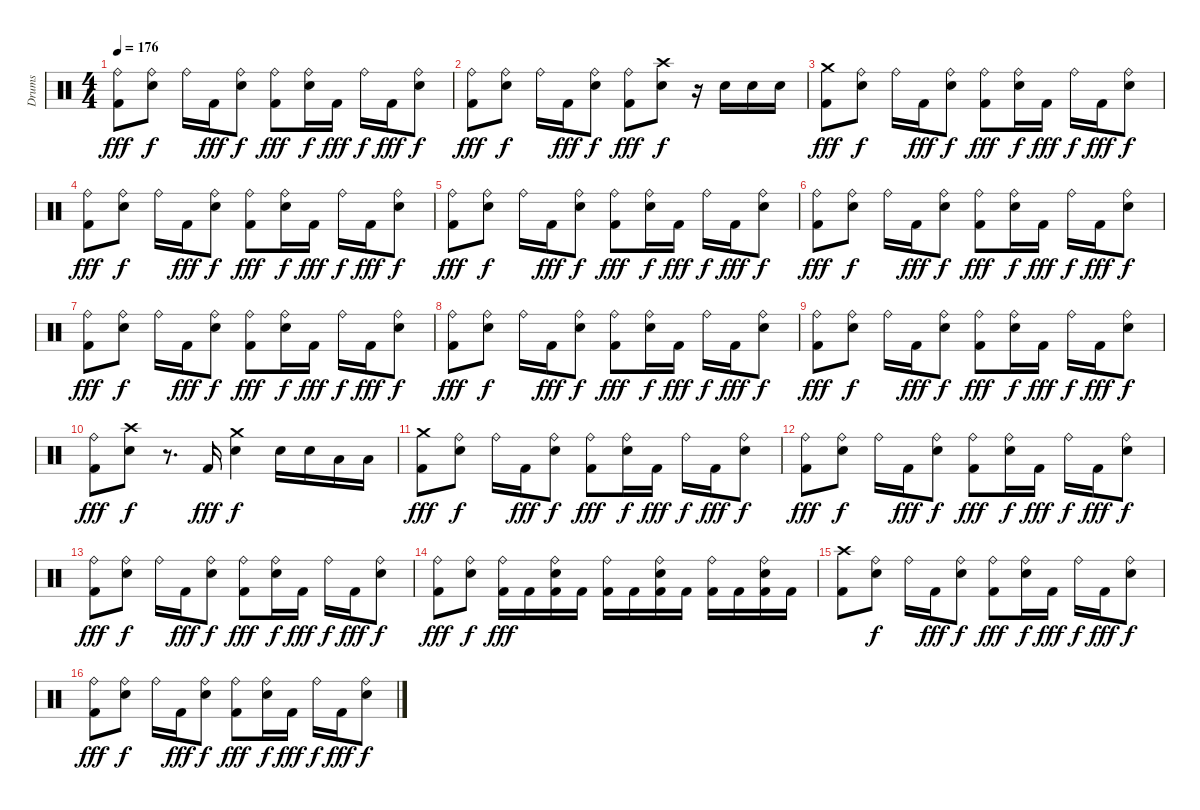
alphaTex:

\track ("Drums" "Drums") {instrument percussion}
\staff {score}
\articulation defaults
\ts (4 4)
\tempo 176
\clef neutral
\ks c
("Ride (bell)" "Kick (hit) 2").8{dy fff} ("Ride (bell)" "Snare (hit) 2").8{dy f} "Ride (bell)".16 "Kick (hit) 2".16{dy fff} ("Ride (bell)" "Snare (hit) 2").8{dy f} ("Ride (bell)" "Kick (hit) 2").8{dy fff} ("Ride (bell)" "Snare (hit) 2").16{dy f} "Kick (hit) 2".16{dy fff} "Ride (bell)".16{dy f} "Kick (hit) 2".16{dy fff} ("Ride (bell)" "Snare (hit) 2").8{dy f} |
("Ride (bell)" "Kick (hit) 2").8{dy fff} ("Ride (bell)" "Snare (hit) 2").8{dy f} "Ride (bell)".16 "Kick (hit) 2".16{dy fff} ("Ride (bell)" "Snare (hit) 2").8{dy f} ("Ride (bell)" "Kick (hit) 2").8{dy fff} ("Crash high (hit)" "Snare (hit) 2").8{dy f} r.16 "Snare (hit) 2".16 "Snare (hit) 2".16 "Snare (hit) 2".16 |
("Crash medium (hit)" "Kick (hit) 2").8{dy fff} ("Ride (bell)" "Snare (hit) 2").8{dy f} "Ride (bell)".16 "Kick (hit) 2".16{dy fff} ("Ride (bell)" "Snare (hit) 2").8{dy f} ("Ride (bell)" "Kick (hit) 2").8{dy fff} ("Ride (bell)" "Snare (hit) 2").16{dy f} "Kick (hit) 2".16{dy fff} "Ride (bell)".16{dy f} "Kick (hit) 2".16{dy fff} ("Ride (bell)" "Snare (hit) 2").8{dy f} |
("Ride (bell)" "Kick (hit) 2").8{dy fff} ("Ride (bell)" "Snare (hit) 2").8{dy f} "Ride (bell)".16 "Kick (hit) 2".16{dy fff} ("Ride (bell)" "Snare (hit) 2").8{dy f} ("Ride (bell)" "Kick (hit) 2").8{dy fff} ("Ride (bell)" "Snare (hit) 2").16{dy f} "Kick (hit) 2".16{dy fff} "Ride (bell)".16{dy f} "Kick (hit) 2".16{dy fff} ("Ride (bell)" "Snare (hit) 2").8{dy f} |
("Ride (bell)" "Kick (hit) 2").8{dy fff} ("Ride (bell)" "Snare (hit) 2").8{dy f} "Ride (bell)".16 "Kick (hit) 2".16{dy fff} ("Ride (bell)" "Snare (hit) 2").8{dy f} ("Ride (bell)" "Kick (hit) 2").8{dy fff} ("Ride (bell)" "Snare (hit) 2").16{dy f} "Kick (hit) 2".16{dy fff} "Ride (bell)".16{dy f} "Kick (hit) 2".16{dy fff} ("Ride (bell)" "Snare (hit) 2").8{dy f} |
("Ride (bell)" "Kick (hit) 2").8{dy fff} ("Ride (bell)" "Snare (hit) 2").8{dy f} "Ride (bell)".16 "Kick (hit) 2".16{dy fff} ("Ride (bell)" "Snare (hit) 2").8{dy f} ("Ride (bell)" "Kick (hit) 2").8{dy fff} ("Ride (bell)" "Snare (hit) 2").16{dy f} "Kick (hit) 2".16{dy fff} "Ride (bell)".16{dy f} "Kick (hit) 2".16{dy fff} ("Ride (bell)" "Snare (hit) 2").8{dy f} |
("Ride (bell)" "Kick (hit) 2").8{dy fff} ("Ride (bell)" "Snare (hit) 2").8{dy f} "Ride (bell)".16 "Kick (hit) 2".16{dy fff} ("Ride (bell)" "Snare (hit) 2").8{dy f} ("Ride (bell)" "Kick (hit) 2").8{dy fff} ("Ride (bell)" "Snare (hit) 2").16{dy f} "Kick (hit) 2".16{dy fff} "Ride (bell)".16{dy f} "Kick (hit) 2".16{dy fff} ("Ride (bell)" "Snare (hit) 2").8{dy f} |
("Ride (bell)" "Kick (hit) 2").8{dy fff} ("Ride (bell)" "Snare (hit) 2").8{dy f} "Ride (bell)".16 "Kick (hit) 2".16{dy fff} ("Ride (bell)" "Snare (hit) 2").8{dy f} ("Ride (bell)" "Kick (hit) 2").8{dy fff} ("Ride (bell)" "Snare (hit) 2").16{dy f} "Kick (hit) 2".16{dy fff} "Ride (bell)".16{dy f} "Kick (hit) 2".16{dy fff} ("Ride (bell)" "Snare (hit) 2").8{dy f} |
("Ride (bell)" "Kick (hit) 2").8{dy fff} ("Ride (bell)" "Snare (hit) 2").8{dy f} "Ride (bell)".16 "Kick (hit) 2".16{dy fff} ("Ride (bell)" "Snare (hit) 2").8{dy f} ("Ride (bell)" "Kick (hit) 2").8{dy fff} ("Ride (bell)" "Snare (hit) 2").16{dy f} "Kick (hit) 2".16{dy fff} "Ride (bell)".16{dy f} "Kick (hit) 2".16{dy fff} ("Ride (bell)" "Snare (hit) 2").8{dy f} |
("Ride (bell)" "Kick (hit) 2").8{dy fff} ("Crash high (hit)" "Snare (hit) 2").8{dy f} r.8{d} "Kick (hit) 2".16{dy fff} ("Crash medium (hit)" "Snare (hit) 2").4{dy f} "Snare (hit) 2".16 "Snare (hit) 2".16 "Low Tom (hit)".16 "Low Tom (hit)".16 |
("Crash medium (hit)" "Kick (hit) 2").8{dy fff} ("Ride (bell)" "Snare (hit) 2").8{dy f} "Ride (bell)".16 "Kick (hit) 2".16{dy fff} ("Ride (bell)" "Snare (hit) 2").8{dy f} ("Ride (bell)" "Kick (hit) 2").8{dy fff} ("Ride (bell)" "Snare (hit) 2").16{dy f} "Kick (hit) 2".16{dy fff} "Ride (bell)".16{dy f} "Kick (hit) 2".16{dy fff} ("Ride (bell)" "Snare (hit) 2").8{dy f} |
("Ride (bell)" "Kick (hit) 2").8{dy fff} ("Ride (bell)" "Snare (hit) 2").8{dy f} "Ride (bell)".16 "Kick (hit) 2".16{dy fff} ("Ride (bell)" "Snare (hit) 2").8{dy f} ("Ride (bell)" "Kick (hit) 2").8{dy fff} ("Ride (bell)" "Snare (hit) 2").16{dy f} "Kick (hit) 2".16{dy fff} "Ride (bell)".16{dy f} "Kick (hit) 2".16{dy fff} ("Ride (bell)" "Snare (hit) 2").8{dy f} |
("Ride (bell)" "Kick (hit) 2").8{dy fff} ("Ride (bell)" "Snare (hit) 2").8{dy f} "Ride (bell)".16 "Kick (hit) 2".16{dy fff} ("Ride (bell)" "Snare (hit) 2").8{dy f} ("Ride (bell)" "Kick (hit) 2").8{dy fff} ("Ride (bell)" "Snare (hit) 2").16{dy f} "Kick (hit) 2".16{dy fff} "Ride (bell)".16{dy f} "Kick (hit) 2".16{dy fff} ("Ride (bell)" "Snare (hit) 2").8{dy f} |
("Ride (bell)" "Kick (hit) 2").8{dy fff} ("Ride (bell)" "Snare (hit) 2").8{dy f} ("Ride (bell)" "Kick (hit) 2").16{dy fff} "Kick (hit) 2".16 ("Ride (bell)" "Snare (hit) 2" "Kick (hit) 2").16 "Kick (hit) 2".16 ("Ride (bell)" "Kick (hit) 2").16 "Kick (hit) 2".16 ("Ride (bell)" "Snare (hit) 2" "Kick (hit) 2").16 "Kick (hit) 2".16 ("Ride (bell)" "Kick (hit) 2").16 "Kick (hit) 2".16 ("Ride (bell)" "Snare (hit) 2" "Kick (hit) 2").16 "Kick (hit) 2".16 |
("Crash high (hit)" "Kick (hit) 2").8 ("Ride (bell)" "Snare (hit) 2").8{dy f} "Ride (bell)".16 "Kick (hit) 2".16{dy fff} ("Ride (bell)" "Snare (hit) 2").8{dy f} ("Ride (bell)" "Kick (hit) 2").8{dy fff} ("Ride (bell)" "Snare (hit) 2").16{dy f} "Kick (hit) 2".16{dy fff} "Ride (bell)".16{dy f} "Kick (hit) 2".16{dy fff} ("Ride (bell)" "Snare (hit) 2").8{dy f} |
("Ride (bell)" "Kick (hit) 2").8{dy fff} ("Ride (bell)" "Snare (hit) 2").8{dy f} "Ride (bell)".16 "Kick (hit) 2".16{dy fff} ("Ride (bell)" "Snare (hit) 2").8{dy f} ("Ride (bell)" "Kick (hit) 2").8{dy fff} ("Ride (bell)" "Snare (hit) 2").16{dy f} "Kick (hit) 2".16{dy fff} "Ride (bell)".16{dy f} "Kick (hit) 2".16{dy fff} ("Ride (bell)" "Snare (hit) 2").8{dy f}
